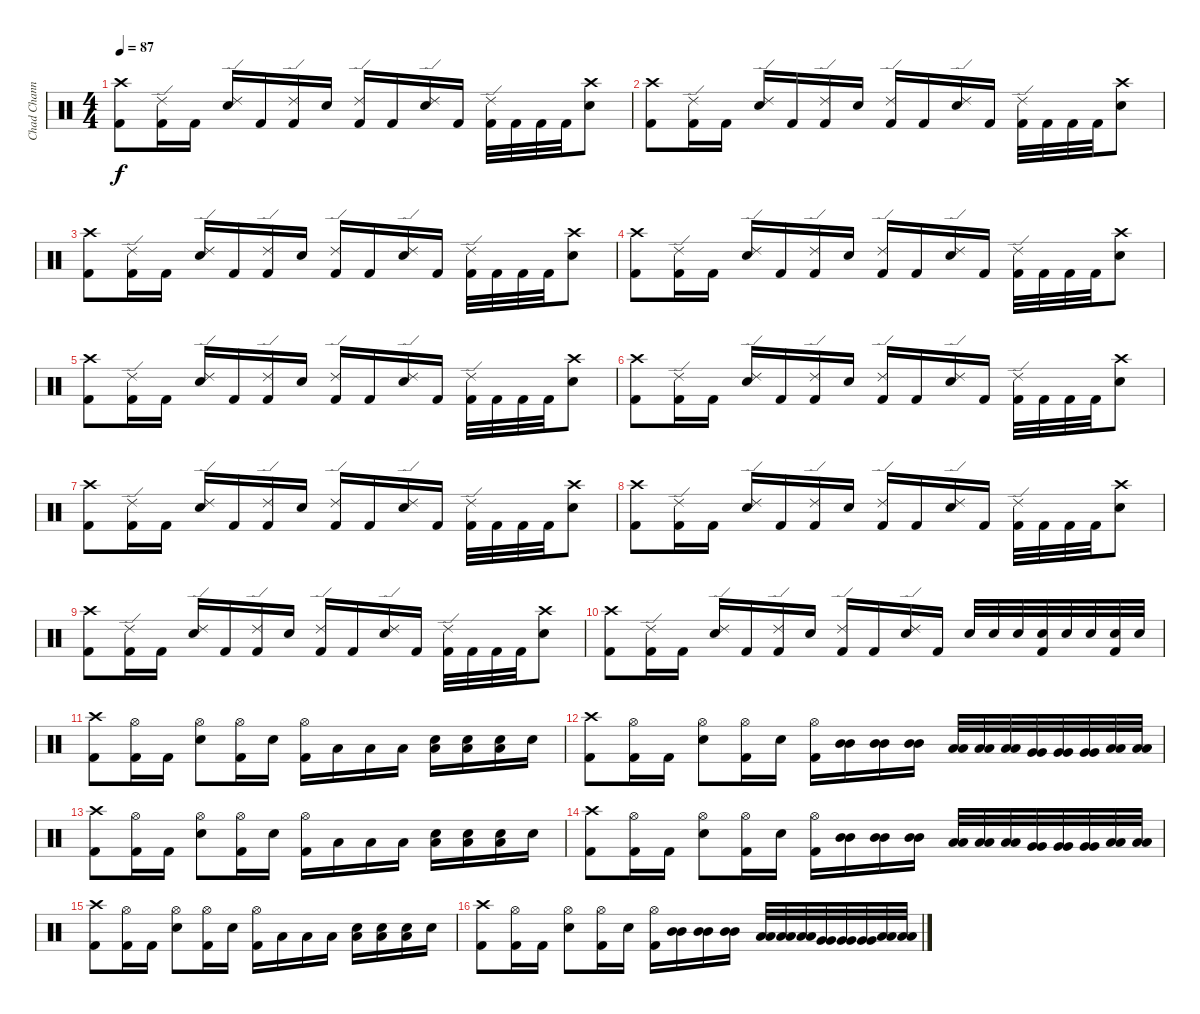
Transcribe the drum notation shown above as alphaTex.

\track ("Chad Channing" "Chad Chann") {instrument percussion}
\staff {score}
\articulation defaults
\ts (4 4)
\tempo 87
\clef neutral
\ks c
("Crash high (hit)" "Kick (hit) 2").8{dy f} ("Ride (edge) 2" "Kick (hit) 2").16 "Kick (hit) 2".16 ("Ride (edge) 2" "Snare (hit) 2").16 "Kick (hit) 2".16 ("Ride (edge) 2" "Kick (hit) 2").16 "Snare (hit) 2".16 ("Ride (edge) 2" "Kick (hit) 2").16 "Kick (hit) 2".16 ("Ride (edge) 2" "Snare (hit) 2").16 "Kick (hit) 2".16 ("Ride (edge) 2" "Kick (hit) 2").32 "Kick (hit) 2".32 "Kick (hit) 2".32 "Kick (hit) 2".32 ("Crash high (hit)" "Snare (hit) 2").8 |
("Crash high (hit)" "Kick (hit) 2").8 ("Ride (edge) 2" "Kick (hit) 2").16 "Kick (hit) 2".16 ("Ride (edge) 2" "Snare (hit) 2").16 "Kick (hit) 2".16 ("Ride (edge) 2" "Kick (hit) 2").16 "Snare (hit) 2".16 ("Ride (edge) 2" "Kick (hit) 2").16 "Kick (hit) 2".16 ("Ride (edge) 2" "Snare (hit) 2").16 "Kick (hit) 2".16 ("Ride (edge) 2" "Kick (hit) 2").32 "Kick (hit) 2".32 "Kick (hit) 2".32 "Kick (hit) 2".32 ("Crash high (hit)" "Snare (hit) 2").8 |
("Crash high (hit)" "Kick (hit) 2").8 ("Ride (edge) 2" "Kick (hit) 2").16 "Kick (hit) 2".16 ("Ride (edge) 2" "Snare (hit) 2").16 "Kick (hit) 2".16 ("Ride (edge) 2" "Kick (hit) 2").16 "Snare (hit) 2".16 ("Ride (edge) 2" "Kick (hit) 2").16 "Kick (hit) 2".16 ("Ride (edge) 2" "Snare (hit) 2").16 "Kick (hit) 2".16 ("Ride (edge) 2" "Kick (hit) 2").32 "Kick (hit) 2".32 "Kick (hit) 2".32 "Kick (hit) 2".32 ("Crash high (hit)" "Snare (hit) 2").8 |
("Crash high (hit)" "Kick (hit) 2").8 ("Ride (edge) 2" "Kick (hit) 2").16 "Kick (hit) 2".16 ("Ride (edge) 2" "Snare (hit) 2").16 "Kick (hit) 2".16 ("Ride (edge) 2" "Kick (hit) 2").16 "Snare (hit) 2".16 ("Ride (edge) 2" "Kick (hit) 2").16 "Kick (hit) 2".16 ("Ride (edge) 2" "Snare (hit) 2").16 "Kick (hit) 2".16 ("Ride (edge) 2" "Kick (hit) 2").32 "Kick (hit) 2".32 "Kick (hit) 2".32 "Kick (hit) 2".32 ("Crash high (hit)" "Snare (hit) 2").8 |
("Crash high (hit)" "Kick (hit) 2").8 ("Ride (edge) 2" "Kick (hit) 2").16 "Kick (hit) 2".16 ("Ride (edge) 2" "Snare (hit) 2").16 "Kick (hit) 2".16 ("Ride (edge) 2" "Kick (hit) 2").16 "Snare (hit) 2".16 ("Ride (edge) 2" "Kick (hit) 2").16 "Kick (hit) 2".16 ("Ride (edge) 2" "Snare (hit) 2").16 "Kick (hit) 2".16 ("Ride (edge) 2" "Kick (hit) 2").32 "Kick (hit) 2".32 "Kick (hit) 2".32 "Kick (hit) 2".32 ("Crash high (hit)" "Snare (hit) 2").8 |
("Crash high (hit)" "Kick (hit) 2").8 ("Ride (edge) 2" "Kick (hit) 2").16 "Kick (hit) 2".16 ("Ride (edge) 2" "Snare (hit) 2").16 "Kick (hit) 2".16 ("Ride (edge) 2" "Kick (hit) 2").16 "Snare (hit) 2".16 ("Ride (edge) 2" "Kick (hit) 2").16 "Kick (hit) 2".16 ("Ride (edge) 2" "Snare (hit) 2").16 "Kick (hit) 2".16 ("Ride (edge) 2" "Kick (hit) 2").32 "Kick (hit) 2".32 "Kick (hit) 2".32 "Kick (hit) 2".32 ("Crash high (hit)" "Snare (hit) 2").8 |
("Crash high (hit)" "Kick (hit) 2").8 ("Ride (edge) 2" "Kick (hit) 2").16 "Kick (hit) 2".16 ("Ride (edge) 2" "Snare (hit) 2").16 "Kick (hit) 2".16 ("Ride (edge) 2" "Kick (hit) 2").16 "Snare (hit) 2".16 ("Ride (edge) 2" "Kick (hit) 2").16 "Kick (hit) 2".16 ("Ride (edge) 2" "Snare (hit) 2").16 "Kick (hit) 2".16 ("Ride (edge) 2" "Kick (hit) 2").32 "Kick (hit) 2".32 "Kick (hit) 2".32 "Kick (hit) 2".32 ("Crash high (hit)" "Snare (hit) 2").8 |
("Crash high (hit)" "Kick (hit) 2").8 ("Ride (edge) 2" "Kick (hit) 2").16 "Kick (hit) 2".16 ("Ride (edge) 2" "Snare (hit) 2").16 "Kick (hit) 2".16 ("Ride (edge) 2" "Kick (hit) 2").16 "Snare (hit) 2".16 ("Ride (edge) 2" "Kick (hit) 2").16 "Kick (hit) 2".16 ("Ride (edge) 2" "Snare (hit) 2").16 "Kick (hit) 2".16 ("Ride (edge) 2" "Kick (hit) 2").32 "Kick (hit) 2".32 "Kick (hit) 2".32 "Kick (hit) 2".32 ("Crash high (hit)" "Snare (hit) 2").8 |
("Crash high (hit)" "Kick (hit) 2").8 ("Ride (edge) 2" "Kick (hit) 2").16 "Kick (hit) 2".16 ("Ride (edge) 2" "Snare (hit) 2").16 "Kick (hit) 2".16 ("Ride (edge) 2" "Kick (hit) 2").16 "Snare (hit) 2".16 ("Ride (edge) 2" "Kick (hit) 2").16 "Kick (hit) 2".16 ("Ride (edge) 2" "Snare (hit) 2").16 "Kick (hit) 2".16 ("Ride (edge) 2" "Kick (hit) 2").32 "Kick (hit) 2".32 "Kick (hit) 2".32 "Kick (hit) 2".32 ("Crash high (hit)" "Snare (hit) 2").8 |
("Crash high (hit)" "Kick (hit) 2").8 ("Ride (edge) 2" "Kick (hit) 2").16 "Kick (hit) 2".16 ("Ride (edge) 2" "Snare (hit) 2").16 "Kick (hit) 2".16 ("Ride (edge) 2" "Kick (hit) 2").16 "Snare (hit) 2".16 ("Ride (edge) 2" "Kick (hit) 2").16 "Kick (hit) 2".16 ("Ride (edge) 2" "Snare (hit) 2").16 "Kick (hit) 2".16 "Snare (hit) 2".32 "Snare (hit) 2".32 "Snare (hit) 2".32 ("Snare (hit) 2" "Kick (hit) 2").32 "Snare (hit) 2".32 "Snare (hit) 2".32 ("Snare (hit) 2" "Kick (hit) 2").32 "Snare (hit) 2".32 |
("Crash high (hit)" "Kick (hit) 2").8 ("Hi-Hat (open)" "Kick (hit) 2").16 "Kick (hit) 2".16 ("Hi-Hat (open)" "Snare (hit) 2").8 ("Hi-Hat (open)" "Kick (hit) 2").16 "Snare (hit) 2".16 ("Hi-Hat (open)" "Kick (hit) 2").16 "Low Tom (hit)".16 "Low Tom (hit)".16 "Low Tom (hit)".16 ("Snare (hit) 2" "Low Tom (hit)").16 ("Snare (hit) 2" "Low Tom (hit)").16 ("Snare (hit) 2" "Low Tom (hit)").16 "Snare (hit) 2".16 |
("Crash high (hit)" "Kick (hit) 2").8 ("Hi-Hat (open)" "Kick (hit) 2").16 "Kick (hit) 2".16 ("Hi-Hat (open)" "Snare (hit) 2").8 ("Hi-Hat (open)" "Kick (hit) 2").16 "Snare (hit) 2".16 ("Hi-Hat (open)" "Kick (hit) 2").16 ("Mid Tom (hit)" "Mid Tom (hit)").16 ("Mid Tom (hit)" "Mid Tom (hit)").16 ("Mid Tom (hit)" "Mid Tom (hit)").16 ("Low Tom (hit)" "Low Tom (hit)").32 ("Low Tom (hit)" "Low Tom (hit)").32 ("Low Tom (hit)" "Low Tom (hit)").32 ("Very Low Tom (hit)" "Very Low Tom (hit)").32 ("Very Low Tom (hit)" "Very Low Tom (hit)").32 ("Very Low Tom (hit)" "Very Low Tom (hit)").32 ("Low Floor Tom (hit)" "Low Floor Tom (hit)").32 ("Low Floor Tom (hit)" "Low Floor Tom (hit)").32 |
("Crash high (hit)" "Kick (hit) 2").8 ("Hi-Hat (open)" "Kick (hit) 2").16 "Kick (hit) 2".16 ("Hi-Hat (open)" "Snare (hit) 2").8 ("Hi-Hat (open)" "Kick (hit) 2").16 "Snare (hit) 2".16 ("Hi-Hat (open)" "Kick (hit) 2").16 "Low Tom (hit)".16 "Low Tom (hit)".16 "Low Tom (hit)".16 ("Snare (hit) 2" "Low Tom (hit)").16 ("Snare (hit) 2" "Low Tom (hit)").16 ("Snare (hit) 2" "Low Tom (hit)").16 "Snare (hit) 2".16 |
("Crash high (hit)" "Kick (hit) 2").8 ("Hi-Hat (open)" "Kick (hit) 2").16 "Kick (hit) 2".16 ("Hi-Hat (open)" "Snare (hit) 2").8 ("Hi-Hat (open)" "Kick (hit) 2").16 "Snare (hit) 2".16 ("Hi-Hat (open)" "Kick (hit) 2").16 ("Mid Tom (hit)" "Mid Tom (hit)").16 ("Mid Tom (hit)" "Mid Tom (hit)").16 ("Mid Tom (hit)" "Mid Tom (hit)").16 ("Low Tom (hit)" "Low Tom (hit)").32 ("Low Tom (hit)" "Low Tom (hit)").32 ("Low Tom (hit)" "Low Tom (hit)").32 ("Very Low Tom (hit)" "Very Low Tom (hit)").32 ("Very Low Tom (hit)" "Very Low Tom (hit)").32 ("Very Low Tom (hit)" "Very Low Tom (hit)").32 ("Low Floor Tom (hit)" "Low Floor Tom (hit)").32 ("Low Floor Tom (hit)" "Low Floor Tom (hit)").32 |
("Crash high (hit)" "Kick (hit) 2").8 ("Hi-Hat (open)" "Kick (hit) 2").16 "Kick (hit) 2".16 ("Hi-Hat (open)" "Snare (hit) 2").8 ("Hi-Hat (open)" "Kick (hit) 2").16 "Snare (hit) 2".16 ("Hi-Hat (open)" "Kick (hit) 2").16 "Low Tom (hit)".16 "Low Tom (hit)".16 "Low Tom (hit)".16 ("Snare (hit) 2" "Low Tom (hit)").16 ("Snare (hit) 2" "Low Tom (hit)").16 ("Snare (hit) 2" "Low Tom (hit)").16 "Snare (hit) 2".16 |
("Crash high (hit)" "Kick (hit) 2").8 ("Hi-Hat (open)" "Kick (hit) 2").16 "Kick (hit) 2".16 ("Hi-Hat (open)" "Snare (hit) 2").8 ("Hi-Hat (open)" "Kick (hit) 2").16 "Snare (hit) 2".16 ("Hi-Hat (open)" "Kick (hit) 2").16 ("Mid Tom (hit)" "Mid Tom (hit)").16 ("Mid Tom (hit)" "Mid Tom (hit)").16 ("Mid Tom (hit)" "Mid Tom (hit)").16 ("Low Tom (hit)" "Low Tom (hit)").32 ("Low Tom (hit)" "Low Tom (hit)").32 ("Low Tom (hit)" "Low Tom (hit)").32 ("Very Low Tom (hit)" "Very Low Tom (hit)").32 ("Very Low Tom (hit)" "Very Low Tom (hit)").32 ("Very Low Tom (hit)" "Very Low Tom (hit)").32 ("Low Floor Tom (hit)" "Low Floor Tom (hit)").32 ("Low Floor Tom (hit)" "Low Floor Tom (hit)").32
